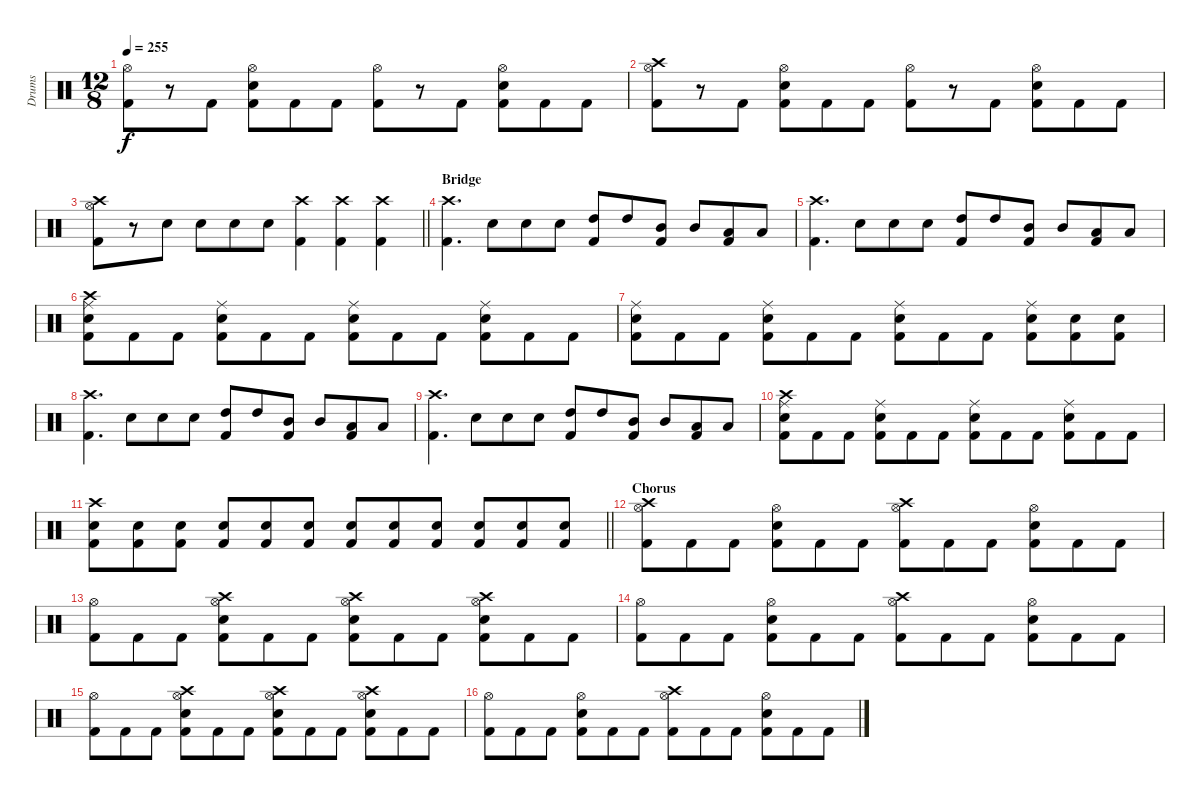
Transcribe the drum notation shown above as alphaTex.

\track ("Drums" "Drums") {instrument percussion}
\staff {score}
\articulation defaults
\ts (12 8)
\tempo 255
\clef neutral
\ks c
("Hi-Hat (open)" "Kick (hit) 2").8{dy f} r.8 "Kick (hit) 2".8 ("Hi-Hat (open)" "Snare (hit) 2" "Kick (hit) 2").8 "Kick (hit) 2".8 "Kick (hit) 2".8 ("Hi-Hat (open)" "Kick (hit) 2").8 r.8 "Kick (hit) 2".8 ("Hi-Hat (open)" "Snare (hit) 2" "Kick (hit) 2").8 "Kick (hit) 2".8 "Kick (hit) 2".8 |
("Crash high (hit)" "Hi-Hat (open)" "Kick (hit) 2").8 r.8 "Kick (hit) 2".8 ("Hi-Hat (open)" "Snare (hit) 2" "Kick (hit) 2").8 "Kick (hit) 2".8 "Kick (hit) 2".8 ("Hi-Hat (open)" "Kick (hit) 2").8 r.8 "Kick (hit) 2".8 ("Hi-Hat (open)" "Snare (hit) 2" "Kick (hit) 2").8 "Kick (hit) 2".8 "Kick (hit) 2".8 |
\barLineRight lightlight
("Crash high (hit)" "Hi-Hat (open)" "Kick (hit) 2").8 r.8 "Snare (hit) 2".8 "Snare (hit) 2".8 "Snare (hit) 2".8 "Snare (hit) 2".8 ("Crash high (hit)" "Kick (hit) 2").4 ("Crash high (hit)" "Kick (hit) 2").4 ("Crash high (hit)" "Kick (hit) 2").4 |
\section ("" "Bridge")
("Crash high (hit)" "Kick (hit) 2").4{d} "Snare (hit) 2".8 "Snare (hit) 2".8 "Snare (hit) 2".8 ("High Tom (hit)" "Kick (hit) 2").8 "High Tom (hit)".8 ("Mid Tom (hit)" "Kick (hit) 2").8 "Mid Tom (hit)".8 ("Low Tom (hit)" "Kick (hit) 2").8 "Low Tom (hit)".8 |
("Crash high (hit)" "Kick (hit) 2").4{d} "Snare (hit) 2".8 "Snare (hit) 2".8 "Snare (hit) 2".8 ("High Tom (hit)" "Kick (hit) 2").8 "High Tom (hit)".8 ("Mid Tom (hit)" "Kick (hit) 2").8 "Mid Tom (hit)".8 ("Low Tom (hit)" "Kick (hit) 2").8 "Low Tom (hit)".8 |
("Crash high (hit)" "Ride (middle)" "Snare (hit) 2" "Kick (hit) 2").8 "Kick (hit) 2".8 "Kick (hit) 2".8 ("Ride (middle)" "Snare (hit) 2" "Kick (hit) 2").8 "Kick (hit) 2".8 "Kick (hit) 2".8 ("Ride (middle)" "Snare (hit) 2" "Kick (hit) 2").8 "Kick (hit) 2".8 "Kick (hit) 2".8 ("Ride (middle)" "Snare (hit) 2" "Kick (hit) 2").8 "Kick (hit) 2".8 "Kick (hit) 2".8 |
("Ride (middle)" "Snare (hit) 2" "Kick (hit) 2").8 "Kick (hit) 2".8 "Kick (hit) 2".8 ("Ride (middle)" "Snare (hit) 2" "Kick (hit) 2").8 "Kick (hit) 2".8 "Kick (hit) 2".8 ("Ride (middle)" "Snare (hit) 2" "Kick (hit) 2").8 "Kick (hit) 2".8 "Kick (hit) 2".8 ("Ride (middle)" "Snare (hit) 2" "Kick (hit) 2").8 ("Snare (hit) 2" "Kick (hit) 2").8 ("Snare (hit) 2" "Kick (hit) 2").8 |
("Crash high (hit)" "Kick (hit) 2").4{d} "Snare (hit) 2".8 "Snare (hit) 2".8 "Snare (hit) 2".8 ("High Tom (hit)" "Kick (hit) 2").8 "High Tom (hit)".8 ("Mid Tom (hit)" "Kick (hit) 2").8 "Mid Tom (hit)".8 ("Low Tom (hit)" "Kick (hit) 2").8 "Low Tom (hit)".8 |
("Crash high (hit)" "Kick (hit) 2").4{d} "Snare (hit) 2".8 "Snare (hit) 2".8 "Snare (hit) 2".8 ("High Tom (hit)" "Kick (hit) 2").8 "High Tom (hit)".8 ("Mid Tom (hit)" "Kick (hit) 2").8 "Mid Tom (hit)".8 ("Low Tom (hit)" "Kick (hit) 2").8 "Low Tom (hit)".8 |
("Crash high (hit)" "Ride (middle)" "Snare (hit) 2" "Kick (hit) 2").8 "Kick (hit) 2".8 "Kick (hit) 2".8 ("Ride (middle)" "Snare (hit) 2" "Kick (hit) 2").8 "Kick (hit) 2".8 "Kick (hit) 2".8 ("Ride (middle)" "Snare (hit) 2" "Kick (hit) 2").8 "Kick (hit) 2".8 "Kick (hit) 2".8 ("Ride (middle)" "Snare (hit) 2" "Kick (hit) 2").8 "Kick (hit) 2".8 "Kick (hit) 2".8 |
\barLineRight lightlight
("Crash high (hit)" "Snare (hit) 2" "Kick (hit) 2").8 ("Snare (hit) 2" "Kick (hit) 2").8 ("Snare (hit) 2" "Kick (hit) 2").8 ("Snare (hit) 2" "Kick (hit) 2").8 ("Snare (hit) 2" "Kick (hit) 2").8 ("Snare (hit) 2" "Kick (hit) 2").8 ("Snare (hit) 2" "Kick (hit) 2").8 ("Snare (hit) 2" "Kick (hit) 2").8 ("Snare (hit) 2" "Kick (hit) 2").8 ("Snare (hit) 2" "Kick (hit) 2").8 ("Snare (hit) 2" "Kick (hit) 2").8 ("Snare (hit) 2" "Kick (hit) 2").8 |
\section ("" "Chorus")
("Crash high (hit)" "Hi-Hat (open)" "Kick (hit) 2").8 "Kick (hit) 2".8 "Kick (hit) 2".8 ("Hi-Hat (open)" "Snare (hit) 2" "Kick (hit) 2").8 "Kick (hit) 2".8 "Kick (hit) 2".8 ("Crash high (hit)" "Hi-Hat (open)" "Kick (hit) 2").8 "Kick (hit) 2".8 "Kick (hit) 2".8 ("Hi-Hat (open)" "Snare (hit) 2" "Kick (hit) 2").8 "Kick (hit) 2".8 "Kick (hit) 2".8 |
("Hi-Hat (open)" "Kick (hit) 2").8 "Kick (hit) 2".8 "Kick (hit) 2".8 ("Crash high (hit)" "Hi-Hat (open)" "Snare (hit) 2" "Kick (hit) 2").8 "Kick (hit) 2".8 "Kick (hit) 2".8 ("Crash high (hit)" "Hi-Hat (open)" "Snare (hit) 2" "Kick (hit) 2").8 "Kick (hit) 2".8 "Kick (hit) 2".8 ("Crash high (hit)" "Hi-Hat (open)" "Snare (hit) 2" "Kick (hit) 2").8 "Kick (hit) 2".8 "Kick (hit) 2".8 |
("Hi-Hat (open)" "Kick (hit) 2").8 "Kick (hit) 2".8 "Kick (hit) 2".8 ("Hi-Hat (open)" "Snare (hit) 2" "Kick (hit) 2").8 "Kick (hit) 2".8 "Kick (hit) 2".8 ("Crash high (hit)" "Hi-Hat (open)" "Kick (hit) 2").8 "Kick (hit) 2".8 "Kick (hit) 2".8 ("Hi-Hat (open)" "Snare (hit) 2" "Kick (hit) 2").8 "Kick (hit) 2".8 "Kick (hit) 2".8 |
("Hi-Hat (open)" "Kick (hit) 2").8 "Kick (hit) 2".8 "Kick (hit) 2".8 ("Crash high (hit)" "Hi-Hat (open)" "Snare (hit) 2" "Kick (hit) 2").8 "Kick (hit) 2".8 "Kick (hit) 2".8 ("Crash high (hit)" "Hi-Hat (open)" "Snare (hit) 2" "Kick (hit) 2").8 "Kick (hit) 2".8 "Kick (hit) 2".8 ("Crash high (hit)" "Hi-Hat (open)" "Snare (hit) 2" "Kick (hit) 2").8 "Kick (hit) 2".8 "Kick (hit) 2".8 |
("Hi-Hat (open)" "Kick (hit) 2").8 "Kick (hit) 2".8 "Kick (hit) 2".8 ("Hi-Hat (open)" "Snare (hit) 2" "Kick (hit) 2").8 "Kick (hit) 2".8 "Kick (hit) 2".8 ("Crash high (hit)" "Hi-Hat (open)" "Kick (hit) 2").8 "Kick (hit) 2".8 "Kick (hit) 2".8 ("Hi-Hat (open)" "Snare (hit) 2" "Kick (hit) 2").8 "Kick (hit) 2".8 "Kick (hit) 2".8
